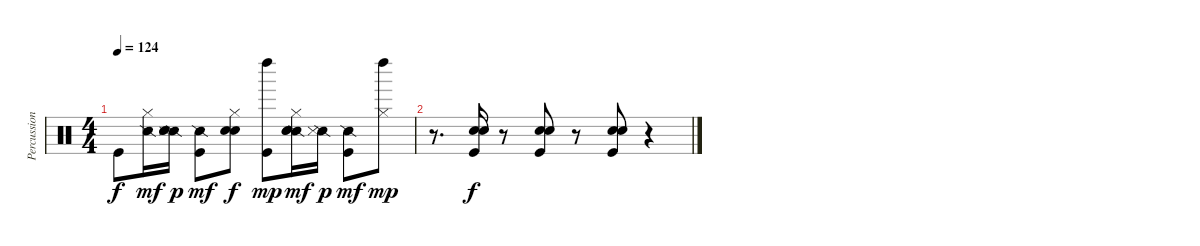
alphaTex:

\track ("Percussion" "Percussion") {instrument percussion}
\staff {score}
\articulation defaults
\ts (4 4)
\tempo 124
\clef neutral
\ks c "Kick (hit)".8{dy f}
("Snare (side stick) 2" "Hi-Hat (closed)").16{dy mf} ("Snare (side stick) 2" "Snare (side stick) 3" "Snare (hit) 2" "Hand Clap (hit)").16{dy p} ("Snare (side stick) 2" "Kick (hit)").8{dy mf} ("Hi-Hat (closed)" "Snare (hit) 2" "Hand Clap (hit)").8{dy f} ("Left Maraca (hit)" "Kick (hit)").8{dy mp} ("Snare (side stick) 2" "Hi-Hat (closed)" "Snare (hit) 2" "Hand Clap (hit)").16{dy mf} ("Snare (side stick) 2" "Snare (side stick) 3").16{dy p} ("Snare (side stick) 2" "Kick (hit)").8{dy mf} ("Left Maraca (hit)" "Hi-Hat (closed)").8{dy mp} |
r.8{d} ("Snare (hit) 2" "Hand Clap (hit)" "Kick (hit)").16{dy f} r.8 ("Snare (hit) 2" "Hand Clap (hit)" "Kick (hit)").8 r.8 ("Snare (hit) 2" "Hand Clap (hit)" "Kick (hit)").8 r.4
